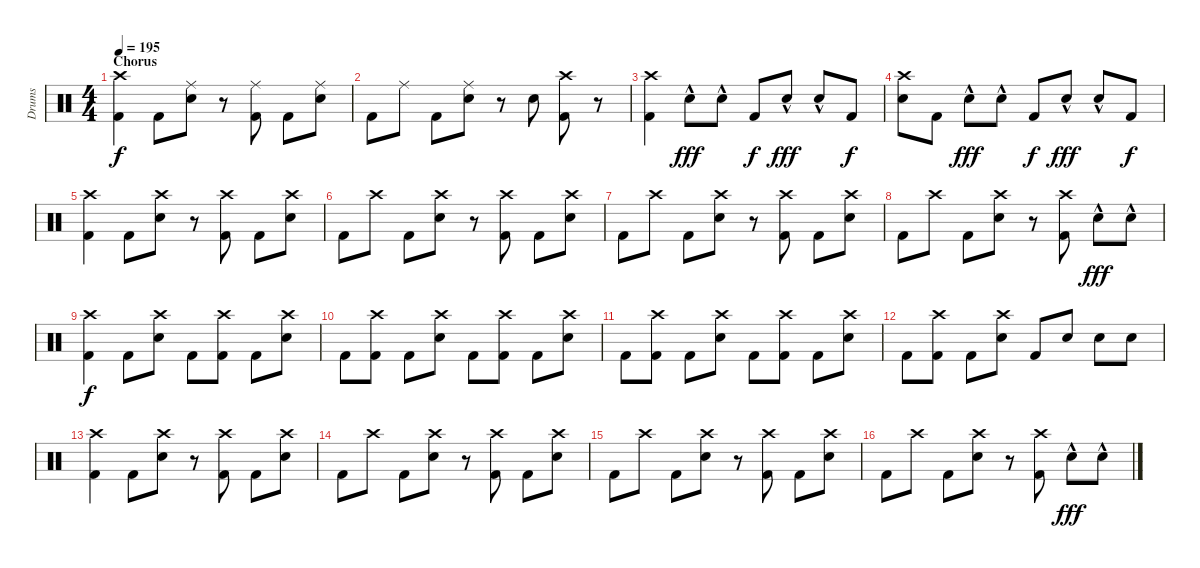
\track ("Drums" "Drums") {instrument percussion}
\staff {score}
\articulation defaults
\ts (4 4)
\section ("" "Chorus")
\tempo 195
\clef neutral
\ks c
("Crash high (hit)" "Kick (hit) 2").4{dy f} "Kick (hit) 2".8 ("Ride (middle)" "Electric Snare (hit)").8 r.8 ("Ride (middle)" "Kick (hit) 2").8 "Kick (hit) 2".8 ("Ride (middle)" "Electric Snare (hit)").8 |
"Kick (hit) 2".8 "Ride (middle)".8 "Kick (hit) 2".8 ("Ride (middle)" "Electric Snare (hit)").8 r.8 "Electric Snare (hit)".8 ("Crash high (hit)" "Kick (hit) 2").8 r.8 |
("Crash high (hit)" "Kick (hit) 2").4 "Electric Snare (hit)"{hac}.8{dy fff} "Electric Snare (hit)"{hac}.8 "Kick (hit) 2".8{dy f} "Electric Snare (hit)"{hac}.8{dy fff} "Electric Snare (hit)"{hac}.8 "Kick (hit) 2".8{dy f} |
("Crash high (hit)" "Electric Snare (hit)").8 "Kick (hit) 2".8 "Electric Snare (hit)"{hac}.8{dy fff} "Electric Snare (hit)"{hac}.8 "Kick (hit) 2".8{dy f} "Electric Snare (hit)"{hac}.8{dy fff} "Electric Snare (hit)"{hac}.8 "Kick (hit) 2".8{dy f} |
("Crash high (hit)" "Kick (hit) 2").4 "Kick (hit) 2".8 ("Crash high (hit)" "Electric Snare (hit)").8 r.8 ("Crash high (hit)" "Kick (hit) 2").8 "Kick (hit) 2".8 ("Crash high (hit)" "Electric Snare (hit)").8 |
"Kick (hit) 2".8 "Crash high (hit)".8 "Kick (hit) 2".8 ("Crash high (hit)" "Electric Snare (hit)").8 r.8 ("Crash high (hit)" "Kick (hit) 2").8 "Kick (hit) 2".8 ("Crash high (hit)" "Electric Snare (hit)").8 |
"Kick (hit) 2".8 "Crash high (hit)".8 "Kick (hit) 2".8 ("Crash high (hit)" "Electric Snare (hit)").8 r.8 ("Crash high (hit)" "Kick (hit) 2").8 "Kick (hit) 2".8 ("Crash high (hit)" "Electric Snare (hit)").8 |
"Kick (hit) 2".8 "Crash high (hit)".8 "Kick (hit) 2".8 ("Crash high (hit)" "Electric Snare (hit)").8 r.8 ("Crash high (hit)" "Kick (hit) 2").8 "Electric Snare (hit)"{hac}.8{dy fff} "Electric Snare (hit)"{hac}.8 |
("Crash high (hit)" "Kick (hit) 2").4{dy f} "Kick (hit) 2".8 ("Crash high (hit)" "Electric Snare (hit)").8 "Kick (hit) 2".8 ("Crash high (hit)" "Kick (hit) 2").8 "Kick (hit) 2".8 ("Crash high (hit)" "Electric Snare (hit)").8 |
"Kick (hit) 2".8 ("Crash high (hit)" "Kick (hit) 2").8 "Kick (hit) 2".8 ("Crash high (hit)" "Electric Snare (hit)").8 "Kick (hit) 2".8 ("Crash high (hit)" "Kick (hit) 2").8 "Kick (hit) 2".8 ("Crash high (hit)" "Electric Snare (hit)").8 |
"Kick (hit) 2".8 ("Crash high (hit)" "Kick (hit) 2").8 "Kick (hit) 2".8 ("Crash high (hit)" "Electric Snare (hit)").8 "Kick (hit) 2".8 ("Crash high (hit)" "Kick (hit) 2").8 "Kick (hit) 2".8 ("Crash high (hit)" "Electric Snare (hit)").8 |
"Kick (hit) 2".8 ("Crash high (hit)" "Kick (hit) 2").8 "Kick (hit) 2".8 ("Crash high (hit)" "Electric Snare (hit)").8 "Kick (hit) 2".8 "Electric Snare (hit)".8 "Electric Snare (hit)".8 "Electric Snare (hit)".8 |
("Crash high (hit)" "Kick (hit) 2").4 "Kick (hit) 2".8 ("Crash high (hit)" "Electric Snare (hit)").8 r.8 ("Crash high (hit)" "Kick (hit) 2").8 "Kick (hit) 2".8 ("Crash high (hit)" "Electric Snare (hit)").8 |
"Kick (hit) 2".8 "Crash high (hit)".8 "Kick (hit) 2".8 ("Crash high (hit)" "Electric Snare (hit)").8 r.8 ("Crash high (hit)" "Kick (hit) 2").8 "Kick (hit) 2".8 ("Crash high (hit)" "Electric Snare (hit)").8 |
"Kick (hit) 2".8 "Crash high (hit)".8 "Kick (hit) 2".8 ("Crash high (hit)" "Electric Snare (hit)").8 r.8 ("Crash high (hit)" "Kick (hit) 2").8 "Kick (hit) 2".8 ("Crash high (hit)" "Electric Snare (hit)").8 |
"Kick (hit) 2".8 "Crash high (hit)".8 "Kick (hit) 2".8 ("Crash high (hit)" "Electric Snare (hit)").8 r.8 ("Crash high (hit)" "Kick (hit) 2").8 "Electric Snare (hit)"{hac}.8{dy fff} "Electric Snare (hit)"{hac}.8
